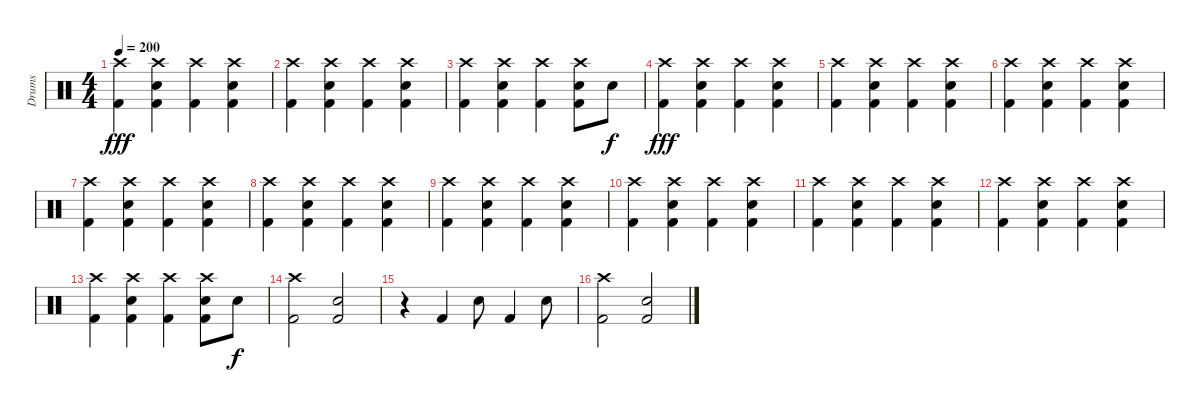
\track ("Drums" "Drums") {instrument percussion}
\staff {score}
\articulation defaults
\ts (4 4)
\tempo 200
\clef neutral
\ks c
("Crash high (hit)" "Kick (hit) 2").4{dy fff} ("Crash high (hit)" "Snare (hit) 2" "Kick (hit) 2").4 ("Crash high (hit)" "Kick (hit) 2").4 ("Crash high (hit)" "Snare (hit) 2" "Kick (hit) 2").4 |
("Crash high (hit)" "Kick (hit) 2").4 ("Crash high (hit)" "Snare (hit) 2" "Kick (hit) 2").4 ("Crash high (hit)" "Kick (hit) 2").4 ("Crash high (hit)" "Snare (hit) 2" "Kick (hit) 2").4 |
("Crash high (hit)" "Kick (hit) 2").4 ("Crash high (hit)" "Snare (hit) 2" "Kick (hit) 2").4 ("Crash high (hit)" "Kick (hit) 2").4 ("Crash high (hit)" "Snare (hit) 2" "Kick (hit) 2").8 "Snare (hit) 2".8{dy f} |
("Crash high (hit)" "Kick (hit) 2").4{dy fff} ("Crash high (hit)" "Snare (hit) 2" "Kick (hit) 2").4 ("Crash high (hit)" "Kick (hit) 2").4 ("Crash high (hit)" "Snare (hit) 2" "Kick (hit) 2").4 |
("Crash high (hit)" "Kick (hit) 2").4 ("Crash high (hit)" "Snare (hit) 2" "Kick (hit) 2").4 ("Crash high (hit)" "Kick (hit) 2").4 ("Crash high (hit)" "Snare (hit) 2" "Kick (hit) 2").4 |
("Crash high (hit)" "Kick (hit) 2").4 ("Crash high (hit)" "Snare (hit) 2" "Kick (hit) 2").4 ("Crash high (hit)" "Kick (hit) 2").4 ("Crash high (hit)" "Snare (hit) 2" "Kick (hit) 2").4 |
("Crash high (hit)" "Kick (hit) 2").4 ("Crash high (hit)" "Snare (hit) 2" "Kick (hit) 2").4 ("Crash high (hit)" "Kick (hit) 2").4 ("Crash high (hit)" "Snare (hit) 2" "Kick (hit) 2").4 |
("Crash high (hit)" "Kick (hit) 2").4 ("Crash high (hit)" "Snare (hit) 2" "Kick (hit) 2").4 ("Crash high (hit)" "Kick (hit) 2").4 ("Crash high (hit)" "Snare (hit) 2" "Kick (hit) 2").4 |
("Crash high (hit)" "Kick (hit) 2").4 ("Crash high (hit)" "Snare (hit) 2" "Kick (hit) 2").4 ("Crash high (hit)" "Kick (hit) 2").4 ("Crash high (hit)" "Snare (hit) 2" "Kick (hit) 2").4 |
("Crash high (hit)" "Kick (hit) 2").4 ("Crash high (hit)" "Snare (hit) 2" "Kick (hit) 2").4 ("Crash high (hit)" "Kick (hit) 2").4 ("Crash high (hit)" "Snare (hit) 2" "Kick (hit) 2").4 |
("Crash high (hit)" "Kick (hit) 2").4 ("Crash high (hit)" "Snare (hit) 2" "Kick (hit) 2").4 ("Crash high (hit)" "Kick (hit) 2").4 ("Crash high (hit)" "Snare (hit) 2" "Kick (hit) 2").4 |
("Crash high (hit)" "Kick (hit) 2").4 ("Crash high (hit)" "Snare (hit) 2" "Kick (hit) 2").4 ("Crash high (hit)" "Kick (hit) 2").4 ("Crash high (hit)" "Snare (hit) 2" "Kick (hit) 2").4 |
("Crash high (hit)" "Kick (hit) 2").4 ("Crash high (hit)" "Snare (hit) 2" "Kick (hit) 2").4 ("Crash high (hit)" "Kick (hit) 2").4 ("Crash high (hit)" "Snare (hit) 2" "Kick (hit) 2").8 "Snare (hit) 2".8{dy f} |
("Crash high (hit)" "Kick (hit) 2").2 ("Snare (hit) 2" "Kick (hit) 2").2 |
r.4 "Kick (hit) 2".4 "Snare (hit) 2".8 "Kick (hit) 2".4 "Snare (hit) 2".8 |
("Crash high (hit)" "Kick (hit) 2").2 ("Snare (hit) 2" "Kick (hit) 2").2
